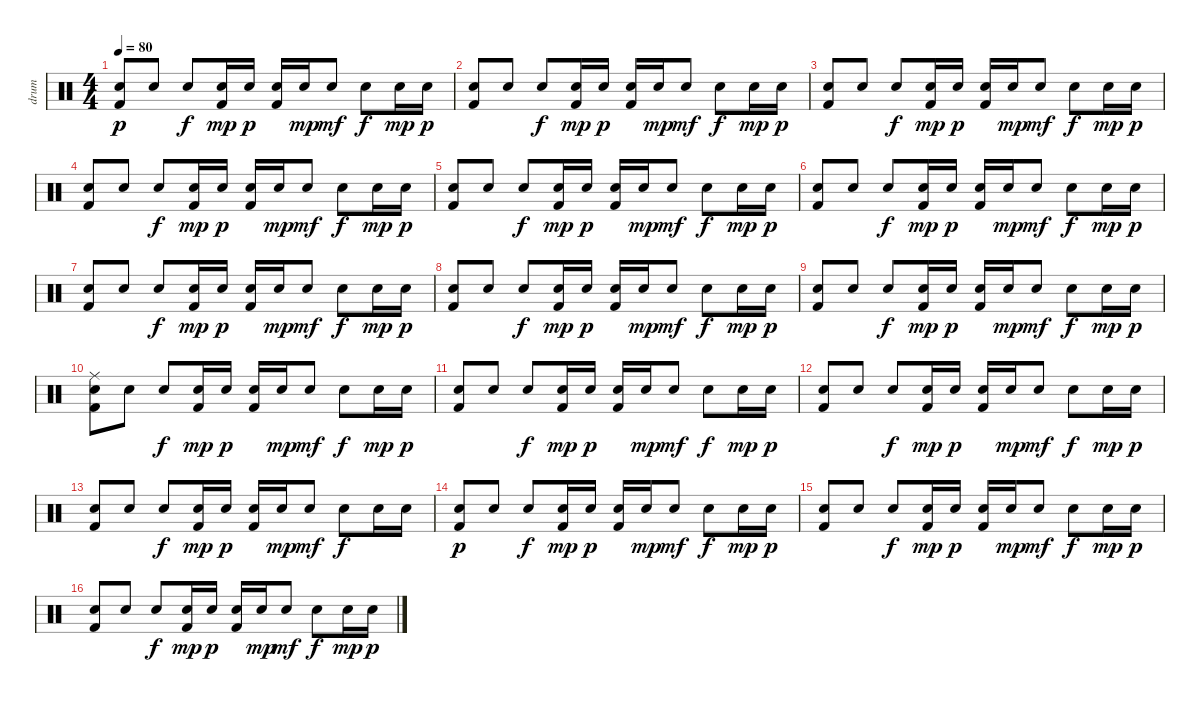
\track ("drum" "drum") {instrument percussion}
\staff {score}
\articulation defaults
\ts (4 4)
\tempo 80
\clef neutral
\ks c
("Snare (hit) 2" "Kick (hit) 2").8{dy p} "Snare (hit) 2".8 "Snare (hit) 2".8{dy f} ("Snare (hit) 2" "Kick (hit) 2").16{dy mp} "Snare (hit) 2".16{dy p} ("Snare (hit) 2" "Kick (hit) 2").16 "Snare (hit) 2".16{dy mp} "Snare (hit) 2".8{dy mf} "Snare (hit) 2".8{dy f} "Snare (hit) 2".16{dy mp} "Snare (hit) 2".16{dy p} |
("Snare (hit) 2" "Kick (hit) 2").8 "Snare (hit) 2".8 "Snare (hit) 2".8{dy f} ("Snare (hit) 2" "Kick (hit) 2").16{dy mp} "Snare (hit) 2".16{dy p} ("Snare (hit) 2" "Kick (hit) 2").16 "Snare (hit) 2".16{dy mp} "Snare (hit) 2".8{dy mf} "Snare (hit) 2".8{dy f} "Snare (hit) 2".16{dy mp} "Snare (hit) 2".16{dy p} |
("Snare (hit) 2" "Kick (hit) 2").8 "Snare (hit) 2".8 "Snare (hit) 2".8{dy f} ("Snare (hit) 2" "Kick (hit) 2").16{dy mp} "Snare (hit) 2".16{dy p} ("Snare (hit) 2" "Kick (hit) 2").16 "Snare (hit) 2".16{dy mp} "Snare (hit) 2".8{dy mf} "Snare (hit) 2".8{dy f} "Snare (hit) 2".16{dy mp} "Snare (hit) 2".16{dy p} |
("Snare (hit) 2" "Kick (hit) 2").8 "Snare (hit) 2".8 "Snare (hit) 2".8{dy f} ("Snare (hit) 2" "Kick (hit) 2").16{dy mp} "Snare (hit) 2".16{dy p} ("Snare (hit) 2" "Kick (hit) 2").16 "Snare (hit) 2".16{dy mp} "Snare (hit) 2".8{dy mf} "Snare (hit) 2".8{dy f} "Snare (hit) 2".16{dy mp} "Snare (hit) 2".16{dy p} |
("Snare (hit) 2" "Kick (hit) 2").8 "Snare (hit) 2".8 "Snare (hit) 2".8{dy f} ("Snare (hit) 2" "Kick (hit) 2").16{dy mp} "Snare (hit) 2".16{dy p} ("Snare (hit) 2" "Kick (hit) 2").16 "Snare (hit) 2".16{dy mp} "Snare (hit) 2".8{dy mf} "Snare (hit) 2".8{dy f} "Snare (hit) 2".16{dy mp} "Snare (hit) 2".16{dy p} |
("Snare (hit) 2" "Kick (hit) 2").8 "Snare (hit) 2".8 "Snare (hit) 2".8{dy f} ("Snare (hit) 2" "Kick (hit) 2").16{dy mp} "Snare (hit) 2".16{dy p} ("Snare (hit) 2" "Kick (hit) 2").16 "Snare (hit) 2".16{dy mp} "Snare (hit) 2".8{dy mf} "Snare (hit) 2".8{dy f} "Snare (hit) 2".16{dy mp} "Snare (hit) 2".16{dy p} |
("Snare (hit) 2" "Kick (hit) 2").8 "Snare (hit) 2".8 "Snare (hit) 2".8{dy f} ("Snare (hit) 2" "Kick (hit) 2").16{dy mp} "Snare (hit) 2".16{dy p} ("Snare (hit) 2" "Kick (hit) 2").16 "Snare (hit) 2".16{dy mp} "Snare (hit) 2".8{dy mf} "Snare (hit) 2".8{dy f} "Snare (hit) 2".16{dy mp} "Snare (hit) 2".16{dy p} |
("Snare (hit) 2" "Kick (hit) 2").8 "Snare (hit) 2".8 "Snare (hit) 2".8{dy f} ("Snare (hit) 2" "Kick (hit) 2").16{dy mp} "Snare (hit) 2".16{dy p} ("Snare (hit) 2" "Kick (hit) 2").16 "Snare (hit) 2".16{dy mp} "Snare (hit) 2".8{dy mf} "Snare (hit) 2".8{dy f} "Snare (hit) 2".16{dy mp} "Snare (hit) 2".16{dy p} |
("Snare (hit) 2" "Kick (hit) 2").8 "Snare (hit) 2".8 "Snare (hit) 2".8{dy f} ("Snare (hit) 2" "Kick (hit) 2").16{dy mp} "Snare (hit) 2".16{dy p} ("Snare (hit) 2" "Kick (hit) 2").16 "Snare (hit) 2".16{dy mp} "Snare (hit) 2".8{dy mf} "Snare (hit) 2".8{dy f} "Snare (hit) 2".16{dy mp} "Snare (hit) 2".16{dy p} |
("Ride (middle)" "Snare (hit) 2" "Kick (hit) 2").8 "Snare (hit) 2".8 "Snare (hit) 2".8{dy f} ("Snare (hit) 2" "Kick (hit) 2").16{dy mp} "Snare (hit) 2".16{dy p} ("Snare (hit) 2" "Kick (hit) 2").16 "Snare (hit) 2".16{dy mp} "Snare (hit) 2".8{dy mf} "Snare (hit) 2".8{dy f} "Snare (hit) 2".16{dy mp} "Snare (hit) 2".16{dy p} |
("Snare (hit) 2" "Kick (hit) 2").8 "Snare (hit) 2".8 "Snare (hit) 2".8{dy f} ("Snare (hit) 2" "Kick (hit) 2").16{dy mp} "Snare (hit) 2".16{dy p} ("Snare (hit) 2" "Kick (hit) 2").16 "Snare (hit) 2".16{dy mp} "Snare (hit) 2".8{dy mf} "Snare (hit) 2".8{dy f} "Snare (hit) 2".16{dy mp} "Snare (hit) 2".16{dy p} |
("Snare (hit) 2" "Kick (hit) 2").8 "Snare (hit) 2".8 "Snare (hit) 2".8{dy f} ("Snare (hit) 2" "Kick (hit) 2").16{dy mp} "Snare (hit) 2".16{dy p} ("Snare (hit) 2" "Kick (hit) 2").16 "Snare (hit) 2".16{dy mp} "Snare (hit) 2".8{dy mf} "Snare (hit) 2".8{dy f} "Snare (hit) 2".16{dy mp} "Snare (hit) 2".16{dy p} |
("Snare (hit) 2" "Kick (hit) 2").8 "Snare (hit) 2".8 "Snare (hit) 2".8{dy f} ("Snare (hit) 2" "Kick (hit) 2").16{dy mp} "Snare (hit) 2".16{dy p} ("Snare (hit) 2" "Kick (hit) 2").16 "Snare (hit) 2".16{dy mp} "Snare (hit) 2".8{dy mf} "Snare (hit) 2".8{dy f} "Snare (hit) 2".16 "Snare (hit) 2".16 |
("Snare (hit) 2" "Kick (hit) 2").8{dy p} "Snare (hit) 2".8 "Snare (hit) 2".8{dy f} ("Snare (hit) 2" "Kick (hit) 2").16{dy mp} "Snare (hit) 2".16{dy p} ("Snare (hit) 2" "Kick (hit) 2").16 "Snare (hit) 2".16{dy mp} "Snare (hit) 2".8{dy mf} "Snare (hit) 2".8{dy f} "Snare (hit) 2".16{dy mp} "Snare (hit) 2".16{dy p} |
("Snare (hit) 2" "Kick (hit) 2").8 "Snare (hit) 2".8 "Snare (hit) 2".8{dy f} ("Snare (hit) 2" "Kick (hit) 2").16{dy mp} "Snare (hit) 2".16{dy p} ("Snare (hit) 2" "Kick (hit) 2").16 "Snare (hit) 2".16{dy mp} "Snare (hit) 2".8{dy mf} "Snare (hit) 2".8{dy f} "Snare (hit) 2".16{dy mp} "Snare (hit) 2".16{dy p} |
("Snare (hit) 2" "Kick (hit) 2").8 "Snare (hit) 2".8 "Snare (hit) 2".8{dy f} ("Snare (hit) 2" "Kick (hit) 2").16{dy mp} "Snare (hit) 2".16{dy p} ("Snare (hit) 2" "Kick (hit) 2").16 "Snare (hit) 2".16{dy mp} "Snare (hit) 2".8{dy mf} "Snare (hit) 2".8{dy f} "Snare (hit) 2".16{dy mp} "Snare (hit) 2".16{dy p}
